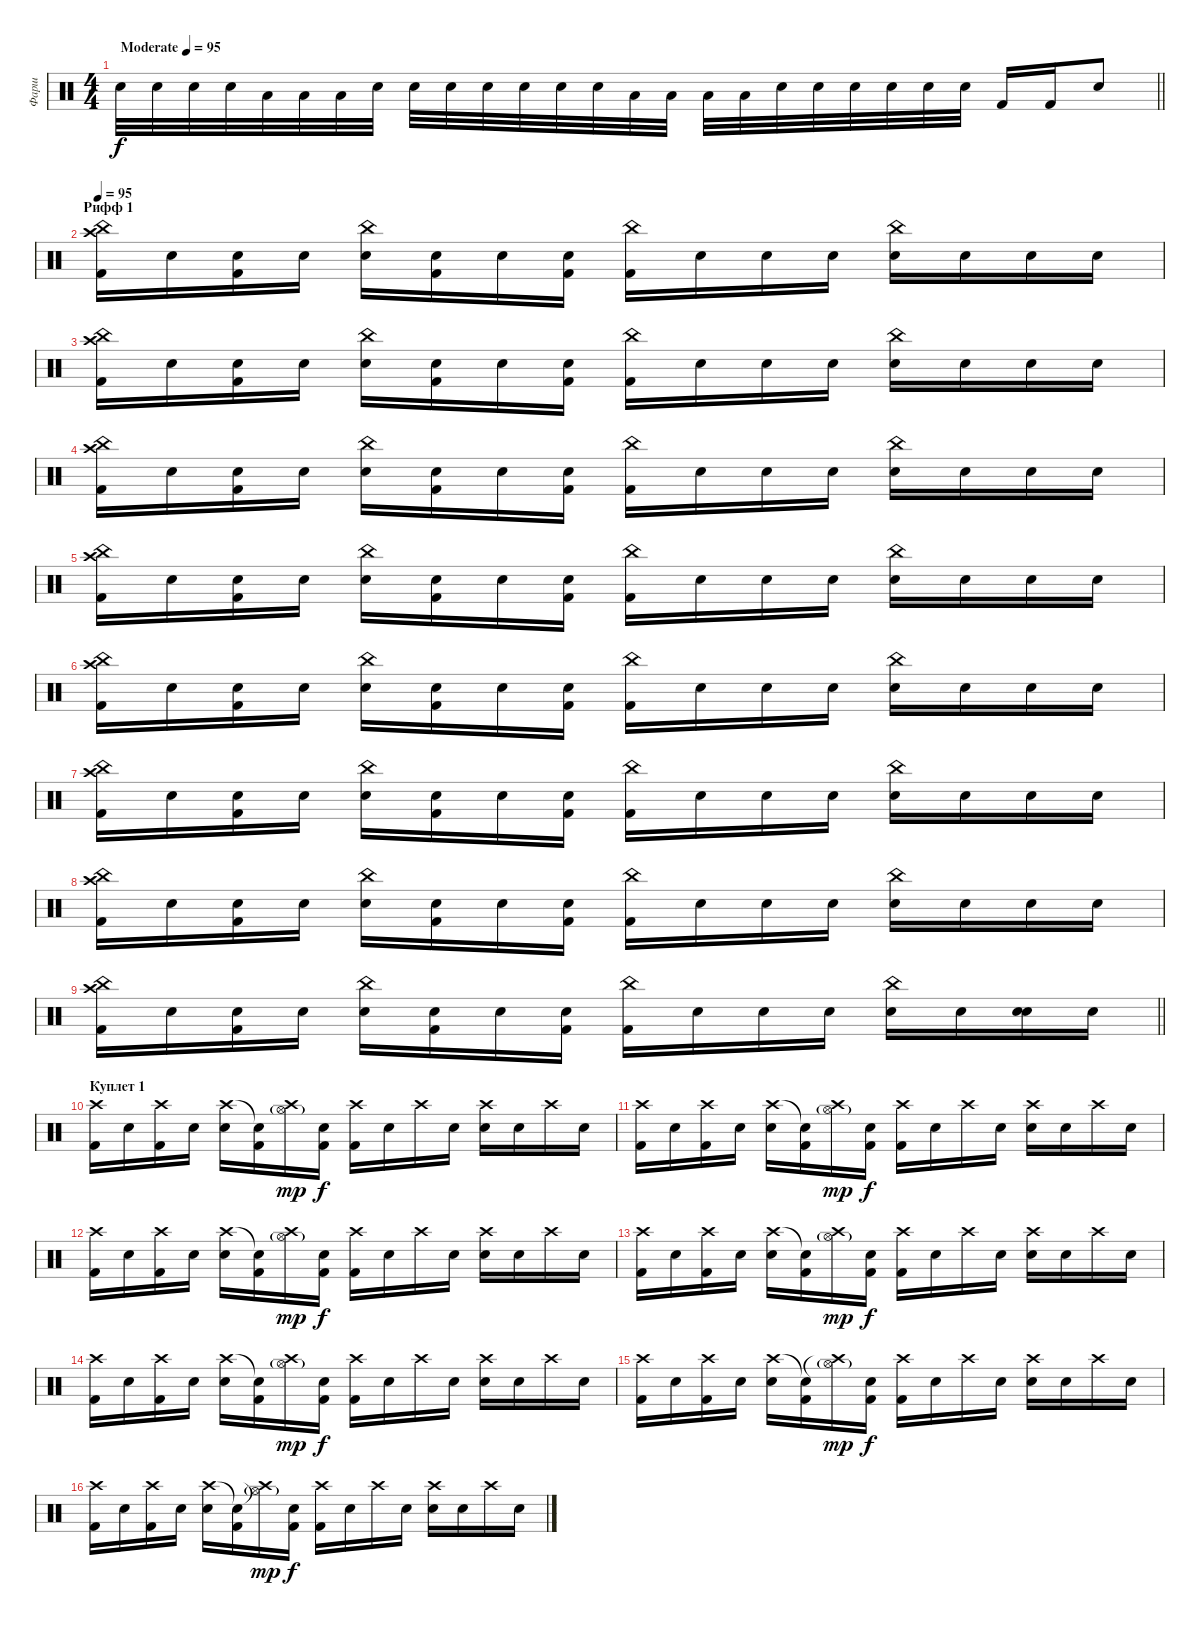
\track ("Фарш" "Фарш") {instrument percussion}
\staff {score}
\articulation defaults
\ts (4 4)
\tempo (95 "Moderate")
\clef neutral
\barLineRight lightlight
\ks c "Electric Snare (hit)".32{dy f volume 5} "Electric Snare (hit)".32 "Electric Snare (hit)".32 "Electric Snare (hit)".32 "Low Floor Tom (hit)".32 "Low Floor Tom (hit)".32 "Low Floor Tom (hit)".32 "Electric Snare (hit)".32 "Electric Snare (hit)".32 "Electric Snare (hit)".32 "Electric Snare (hit)".32 "Electric Snare (hit)".32 "Electric Snare (hit)".32 "Electric Snare (hit)".32 "Low Floor Tom (hit)".32 "Low Floor Tom (hit)".32 "Low Floor Tom (hit)".32 "Low Floor Tom (hit)".32 "Electric Snare (hit)".32 "Electric Snare (hit)".32 "Electric Snare (hit)".32 "Electric Snare (hit)".32 "Electric Snare (hit)".32 "Electric Snare (hit)".32 "Kick (hit) 2".16 "Kick (hit) 2".16 "Electric Snare (hit)".8
|
\section ("" "Рифф 1")
\tempo 95
("China (hit)" "Crash high (hit)" "Kick (hit) 2").16{volume 12 balance 8} "Snare (hit)".16 ("Snare (hit)" "Kick (hit) 2").16 "Snare (hit)".16 ("China (hit)" "Electric Snare (hit)").16 ("Snare (hit)" "Kick (hit) 2").16 "Snare (hit)".16 ("Snare (hit)" "Kick (hit) 2").16 ("China (hit)" "Kick (hit) 2").16 "Snare (hit)".16 "Snare (hit)".16 "Snare (hit)".16 ("China (hit)" "Electric Snare (hit)").16 "Snare (hit)".16 "Snare (hit)".16 "Snare (hit)".16 |
("China (hit)" "Crash high (hit)" "Kick (hit) 2").16 "Snare (hit)".16 ("Snare (hit)" "Kick (hit) 2").16 "Snare (hit)".16 ("China (hit)" "Electric Snare (hit)").16 ("Snare (hit)" "Kick (hit) 2").16 "Snare (hit)".16 ("Snare (hit)" "Kick (hit) 2").16 ("China (hit)" "Kick (hit) 2").16 "Snare (hit)".16 "Snare (hit)".16 "Snare (hit)".16 ("China (hit)" "Electric Snare (hit)").16 "Snare (hit)".16 "Snare (hit)".16 "Snare (hit)".16 |
("China (hit)" "Crash high (hit)" "Kick (hit) 2").16 "Snare (hit)".16 ("Snare (hit)" "Kick (hit) 2").16 "Snare (hit)".16 ("China (hit)" "Electric Snare (hit)").16 ("Snare (hit)" "Kick (hit) 2").16 "Snare (hit)".16 ("Snare (hit)" "Kick (hit) 2").16 ("China (hit)" "Kick (hit) 2").16 "Snare (hit)".16 "Snare (hit)".16 "Snare (hit)".16 ("China (hit)" "Electric Snare (hit)").16 "Snare (hit)".16 "Snare (hit)".16 "Snare (hit)".16 |
("China (hit)" "Crash high (hit)" "Kick (hit) 2").16 "Snare (hit)".16 ("Snare (hit)" "Kick (hit) 2").16 "Snare (hit)".16 ("China (hit)" "Electric Snare (hit)").16 ("Snare (hit)" "Kick (hit) 2").16 "Snare (hit)".16 ("Snare (hit)" "Kick (hit) 2").16 ("China (hit)" "Kick (hit) 2").16 "Snare (hit)".16 "Snare (hit)".16 "Snare (hit)".16 ("China (hit)" "Electric Snare (hit)").16 "Snare (hit)".16 "Snare (hit)".16 "Snare (hit)".16 |
("China (hit)" "Crash high (hit)" "Kick (hit) 2").16 "Snare (hit)".16 ("Snare (hit)" "Kick (hit) 2").16 "Snare (hit)".16 ("China (hit)" "Electric Snare (hit)").16 ("Snare (hit)" "Kick (hit) 2").16 "Snare (hit)".16 ("Snare (hit)" "Kick (hit) 2").16 ("China (hit)" "Kick (hit) 2").16 "Snare (hit)".16 "Snare (hit)".16 "Snare (hit)".16 ("China (hit)" "Electric Snare (hit)").16 "Snare (hit)".16 "Snare (hit)".16 "Snare (hit)".16 |
("China (hit)" "Crash high (hit)" "Kick (hit) 2").16 "Snare (hit)".16 ("Snare (hit)" "Kick (hit) 2").16 "Snare (hit)".16 ("China (hit)" "Electric Snare (hit)").16 ("Snare (hit)" "Kick (hit) 2").16 "Snare (hit)".16 ("Snare (hit)" "Kick (hit) 2").16 ("China (hit)" "Kick (hit) 2").16 "Snare (hit)".16 "Snare (hit)".16 "Snare (hit)".16 ("China (hit)" "Electric Snare (hit)").16 "Snare (hit)".16 "Snare (hit)".16 "Snare (hit)".16 |
("China (hit)" "Crash high (hit)" "Kick (hit) 2").16 "Snare (hit)".16 ("Snare (hit)" "Kick (hit) 2").16 "Snare (hit)".16 ("China (hit)" "Electric Snare (hit)").16 ("Snare (hit)" "Kick (hit) 2").16 "Snare (hit)".16 ("Snare (hit)" "Kick (hit) 2").16 ("China (hit)" "Kick (hit) 2").16 "Snare (hit)".16 "Snare (hit)".16 "Snare (hit)".16 ("China (hit)" "Electric Snare (hit)").16 "Snare (hit)".16 "Snare (hit)".16 "Snare (hit)".16 |
\barLineRight lightlight
("China (hit)" "Crash high (hit)" "Kick (hit) 2").16 "Snare (hit)".16 ("Snare (hit)" "Kick (hit) 2").16 "Snare (hit)".16 ("China (hit)" "Electric Snare (hit)").16 ("Snare (hit)" "Kick (hit) 2").16 "Snare (hit)".16 ("Snare (hit)" "Kick (hit) 2").16 ("China (hit)" "Kick (hit) 2").16 "Snare (hit)".16 "Snare (hit)".16 "Snare (hit)".16 ("China (hit)" "Electric Snare (hit)").16 "Snare (hit)".16 ("Snare (hit)" "Electric Snare (hit)").16 "Snare (hit)".16 |
\section ("" "Куплет 1")
("Crash high (hit)" "Kick (hit) 2").16 "Snare (hit)".16 ("Crash high (hit)" "Kick (hit) 2").16 "Snare (hit)".16 ("Crash high (hit)" "Electric Snare (hit)").16 ("Snare (hit)"{t} "Kick (hit) 2").16 ("Crash high (hit)" "Hi-Hat (open)"{g}).16{dy mp} ("Snare (hit)" "Kick (hit) 2").16{dy f} ("Crash high (hit)" "Kick (hit) 2").16 "Snare (hit)".16 "Crash high (hit)".16 "Snare (hit)".16 ("Crash high (hit)" "Electric Snare (hit)").16 "Snare (hit)".16 "Crash high (hit)".16 "Snare (hit)".16 |
("Crash high (hit)" "Kick (hit) 2").16 "Snare (hit)".16 ("Crash high (hit)" "Kick (hit) 2").16 "Snare (hit)".16 ("Crash high (hit)" "Electric Snare (hit)").16 ("Snare (hit)"{t} "Kick (hit) 2").16 ("Crash high (hit)" "Hi-Hat (open)"{g}).16{dy mp} ("Snare (hit)" "Kick (hit) 2").16{dy f} ("Crash high (hit)" "Kick (hit) 2").16 "Snare (hit)".16 "Crash high (hit)".16 "Snare (hit)".16 ("Crash high (hit)" "Electric Snare (hit)").16 "Snare (hit)".16 "Crash high (hit)".16 "Snare (hit)".16 |
("Crash high (hit)" "Kick (hit) 2").16 "Snare (hit)".16 ("Crash high (hit)" "Kick (hit) 2").16 "Snare (hit)".16 ("Crash high (hit)" "Electric Snare (hit)").16 ("Snare (hit)"{t} "Kick (hit) 2").16 ("Crash high (hit)" "Hi-Hat (open)"{g}).16{dy mp} ("Snare (hit)" "Kick (hit) 2").16{dy f} ("Crash high (hit)" "Kick (hit) 2").16 "Snare (hit)".16 "Crash high (hit)".16 "Snare (hit)".16 ("Crash high (hit)" "Electric Snare (hit)").16 "Snare (hit)".16 "Crash high (hit)".16 "Snare (hit)".16 |
("Crash high (hit)" "Kick (hit) 2").16 "Snare (hit)".16 ("Crash high (hit)" "Kick (hit) 2").16 "Snare (hit)".16 ("Crash high (hit)" "Electric Snare (hit)").16 ("Snare (hit)"{t} "Kick (hit) 2").16 ("Crash high (hit)" "Hi-Hat (open)"{g}).16{dy mp} ("Snare (hit)" "Kick (hit) 2").16{dy f} ("Crash high (hit)" "Kick (hit) 2").16 "Snare (hit)".16 "Crash high (hit)".16 "Snare (hit)".16 ("Crash high (hit)" "Electric Snare (hit)").16 "Snare (hit)".16 "Crash high (hit)".16 "Snare (hit)".16 |
("Crash high (hit)" "Kick (hit) 2").16 "Snare (hit)".16 ("Crash high (hit)" "Kick (hit) 2").16 "Snare (hit)".16 ("Crash high (hit)" "Electric Snare (hit)").16 ("Snare (hit)"{t} "Kick (hit) 2").16 ("Crash high (hit)" "Hi-Hat (open)"{g}).16{dy mp} ("Snare (hit)" "Kick (hit) 2").16{dy f} ("Crash high (hit)" "Kick (hit) 2").16 "Snare (hit)".16 "Crash high (hit)".16 "Snare (hit)".16 ("Crash high (hit)" "Electric Snare (hit)").16 "Snare (hit)".16 "Crash high (hit)".16 "Snare (hit)".16 |
("Crash high (hit)" "Kick (hit) 2").16 "Snare (hit)".16 ("Crash high (hit)" "Kick (hit) 2").16 "Snare (hit)".16 ("Crash high (hit)" "Electric Snare (hit)").16 ("Snare (hit)"{t} "Kick (hit) 2").16 ("Crash high (hit)"{t} "Hi-Hat (open)"{g}).16{dy mp} ("Snare (hit)" "Kick (hit) 2").16{dy f} ("Crash high (hit)" "Kick (hit) 2").16 "Snare (hit)".16 "Crash high (hit)".16 "Snare (hit)".16 ("Crash high (hit)" "Electric Snare (hit)").16 "Snare (hit)".16 "Crash high (hit)".16 "Snare (hit)".16 |
("Crash high (hit)" "Kick (hit) 2").16 "Snare (hit)".16 ("Crash high (hit)" "Kick (hit) 2").16 "Snare (hit)".16 ("Crash high (hit)" "Electric Snare (hit)").16 ("Snare (hit)"{t} "Kick (hit) 2").16 ("Crash high (hit)"{t} "Hi-Hat (open)"{g}).16{dy mp} ("Snare (hit)" "Kick (hit) 2").16{dy f} ("Crash high (hit)" "Kick (hit) 2").16 "Snare (hit)".16 "Crash high (hit)".16 "Snare (hit)".16 ("Crash high (hit)" "Electric Snare (hit)").16 "Snare (hit)".16 "Crash high (hit)".16 "Snare (hit)".16
